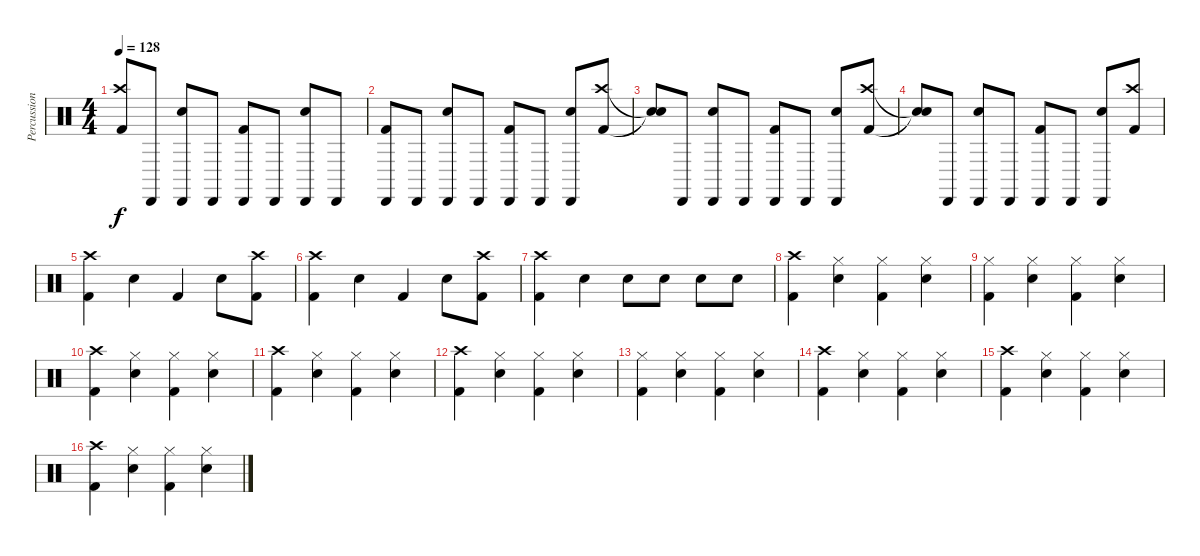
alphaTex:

\track ("Percussion" "Percussion") {instrument percussion}
\staff {score}
\articulation defaults
\ts (4 4)
\tempo 128
\clef neutral
\ks c
("Kick (hit) 2" "Crash high (hit)").8{dy f} "Cabasa (hit)".8 ("Snare (hit) 2" "Cabasa (hit)").8 "Cabasa (hit)".8 ("Kick (hit) 2" "Cabasa (hit)").8 "Cabasa (hit)".8 ("Snare (hit) 2" "Cabasa (hit)").8 "Cabasa (hit)".8 |
("Kick (hit) 2" "Cabasa (hit)").8 "Cabasa (hit)".8 ("Snare (hit) 2" "Cabasa (hit)").8 "Cabasa (hit)".8 ("Kick (hit) 2" "Cabasa (hit)").8 "Cabasa (hit)".8 ("Snare (hit) 2" "Cabasa (hit)").8 ("Kick (hit) 2" "Crash high (hit)").8 |
("Snare (hit)"{t} "Snare (hit)"{t}).8 "Cabasa (hit)".8 ("Snare (hit) 2" "Cabasa (hit)").8 "Cabasa (hit)".8 ("Kick (hit) 2" "Cabasa (hit)").8 "Cabasa (hit)".8 ("Snare (hit) 2" "Cabasa (hit)").8 ("Kick (hit) 2" "Crash high (hit)").8 |
("Snare (hit)"{t} "Snare (hit)"{t}).8 "Cabasa (hit)".8 ("Snare (hit) 2" "Cabasa (hit)").8 "Cabasa (hit)".8 ("Kick (hit) 2" "Cabasa (hit)").8 "Cabasa (hit)".8 ("Snare (hit) 2" "Cabasa (hit)").8 ("Kick (hit) 2" "Crash high (hit)").8 |
("Kick (hit) 2" "Crash high (hit)").4 "Snare (hit) 2".4 "Kick (hit) 2".4 "Snare (hit) 2".8 ("Kick (hit) 2" "Crash high (hit)").8 |
("Kick (hit) 2" "Crash high (hit)").4 "Snare (hit) 2".4 "Kick (hit) 2".4 "Snare (hit) 2".8 ("Kick (hit) 2" "Crash high (hit)").8 |
("Kick (hit) 2" "Crash high (hit)").4 "Snare (hit) 2".4 "Snare (hit) 2".8 "Snare (hit) 2".8 "Snare (hit) 2".8 "Snare (hit) 2".8 |
("Kick (hit) 2" "Crash high (hit)").4 ("Snare (hit) 2" "Hi-Hat (closed)").4 ("Kick (hit) 2" "Hi-Hat (closed)").4 ("Snare (hit) 2" "Hi-Hat (closed)").4 |
("Kick (hit) 2" "Hi-Hat (closed)").4 ("Snare (hit) 2" "Hi-Hat (closed)").4 ("Kick (hit) 2" "Hi-Hat (closed)").4 ("Snare (hit) 2" "Hi-Hat (closed)").4 |
("Kick (hit) 2" "Crash high (hit)").4 ("Snare (hit) 2" "Hi-Hat (closed)").4 ("Kick (hit) 2" "Hi-Hat (closed)").4 ("Snare (hit) 2" "Hi-Hat (closed)").4 |
("Kick (hit) 2" "Crash high (hit)").4 ("Snare (hit) 2" "Hi-Hat (closed)").4 ("Kick (hit) 2" "Hi-Hat (closed)").4 ("Snare (hit) 2" "Hi-Hat (closed)").4 |
("Kick (hit) 2" "Crash high (hit)").4 ("Snare (hit) 2" "Hi-Hat (closed)").4 ("Kick (hit) 2" "Hi-Hat (closed)").4 ("Snare (hit) 2" "Hi-Hat (closed)").4 |
("Kick (hit) 2" "Hi-Hat (closed)").4 ("Snare (hit) 2" "Hi-Hat (closed)").4 ("Kick (hit) 2" "Hi-Hat (closed)").4 ("Snare (hit) 2" "Hi-Hat (closed)").4 |
("Kick (hit) 2" "Crash high (hit)").4 ("Snare (hit) 2" "Hi-Hat (closed)").4 ("Kick (hit) 2" "Hi-Hat (closed)").4 ("Snare (hit) 2" "Hi-Hat (closed)").4 |
("Kick (hit) 2" "Crash high (hit)").4 ("Snare (hit) 2" "Hi-Hat (closed)").4 ("Kick (hit) 2" "Hi-Hat (closed)").4 ("Snare (hit) 2" "Hi-Hat (closed)").4 |
("Kick (hit) 2" "Crash high (hit)").4 ("Snare (hit) 2" "Hi-Hat (closed)").4 ("Kick (hit) 2" "Hi-Hat (closed)").4 ("Snare (hit) 2" "Hi-Hat (closed)").4
